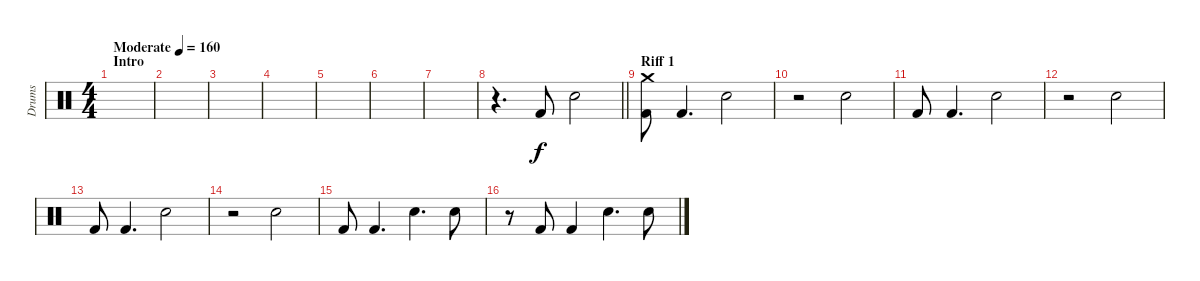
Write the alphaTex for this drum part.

\track ("Drums" "Drums") {instrument percussion}
\staff {score}
\articulation defaults
\ts (4 4)
\section ("" "Intro")
\tempo (160 "Moderate")
\clef neutral
\ks c
|
|
|
|
|
|
|
\barLineRight lightlight
r.4{d} "Kick (hit) 2".8 "Snare (hit) 2".2 |
\section ("" "Riff 1")
("Kick (hit) 2" "Crash medium (hit)").8 "Kick (hit) 2".4{d} "Snare (hit) 2".2 |
r.2 "Snare (hit) 2".2 |
"Kick (hit) 2".8 "Kick (hit) 2".4{d} "Snare (hit) 2".2 |
r.2 "Snare (hit) 2".2 |
"Kick (hit) 2".8 "Kick (hit) 2".4{d} "Snare (hit) 2".2 |
r.2 "Snare (hit) 2".2 |
"Kick (hit) 2".8 "Kick (hit) 2".4{d} "Snare (hit) 2".4{d} "Snare (hit) 2".8 |
r.8 "Kick (hit) 2".8 "Kick (hit) 2".4 "Snare (hit) 2".4{d} "Snare (hit) 2".8
